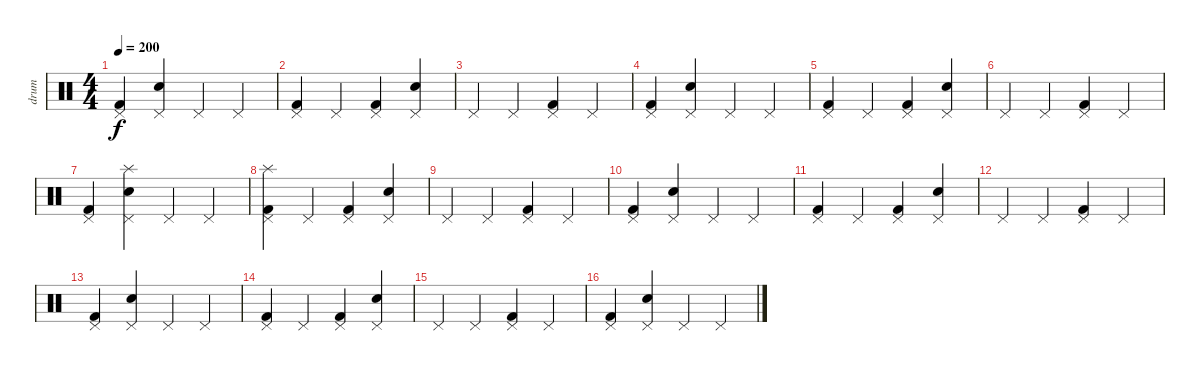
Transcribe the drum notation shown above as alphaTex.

\track ("drum" "drum") {instrument percussion}
\staff {score}
\articulation defaults
\ts (4 4)
\tempo 200
\clef neutral
\ks c
("Pedal Hi-Hat (hit)" "Kick (hit) 2").4{dy f} ("Pedal Hi-Hat (hit)" "Electric Snare (hit)").4 "Pedal Hi-Hat (hit)".4 "Pedal Hi-Hat (hit)".4 |
("Pedal Hi-Hat (hit)" "Kick (hit) 2").4 "Pedal Hi-Hat (hit)".4 ("Pedal Hi-Hat (hit)" "Kick (hit) 2").4 ("Pedal Hi-Hat (hit)" "Electric Snare (hit)").4 |
"Pedal Hi-Hat (hit)".4 "Pedal Hi-Hat (hit)".4 ("Pedal Hi-Hat (hit)" "Kick (hit) 2").4 "Pedal Hi-Hat (hit)".4 |
("Pedal Hi-Hat (hit)" "Kick (hit) 2").4 ("Pedal Hi-Hat (hit)" "Electric Snare (hit)").4 "Pedal Hi-Hat (hit)".4 "Pedal Hi-Hat (hit)".4 |
("Pedal Hi-Hat (hit)" "Kick (hit) 2").4 "Pedal Hi-Hat (hit)".4 ("Pedal Hi-Hat (hit)" "Kick (hit) 2").4 ("Pedal Hi-Hat (hit)" "Electric Snare (hit)").4 |
"Pedal Hi-Hat (hit)".4 "Pedal Hi-Hat (hit)".4 ("Pedal Hi-Hat (hit)" "Kick (hit) 2").4 "Pedal Hi-Hat (hit)".4 |
("Pedal Hi-Hat (hit)" "Kick (hit) 2").4 ("Pedal Hi-Hat (hit)" "Splash (hit)" "Electric Snare (hit)").4 "Pedal Hi-Hat (hit)".4 "Pedal Hi-Hat (hit)".4 |
("Pedal Hi-Hat (hit)" "Splash (hit)" "Kick (hit) 2").4 "Pedal Hi-Hat (hit)".4 ("Pedal Hi-Hat (hit)" "Kick (hit) 2").4 ("Pedal Hi-Hat (hit)" "Electric Snare (hit)").4 |
"Pedal Hi-Hat (hit)".4 "Pedal Hi-Hat (hit)".4 ("Pedal Hi-Hat (hit)" "Kick (hit) 2").4 "Pedal Hi-Hat (hit)".4 |
("Pedal Hi-Hat (hit)" "Kick (hit) 2").4 ("Pedal Hi-Hat (hit)" "Electric Snare (hit)").4 "Pedal Hi-Hat (hit)".4 "Pedal Hi-Hat (hit)".4 |
("Pedal Hi-Hat (hit)" "Kick (hit) 2").4 "Pedal Hi-Hat (hit)".4 ("Pedal Hi-Hat (hit)" "Kick (hit) 2").4 ("Pedal Hi-Hat (hit)" "Electric Snare (hit)").4 |
"Pedal Hi-Hat (hit)".4 "Pedal Hi-Hat (hit)".4 ("Pedal Hi-Hat (hit)" "Kick (hit) 2").4 "Pedal Hi-Hat (hit)".4 |
("Pedal Hi-Hat (hit)" "Kick (hit) 2").4 ("Pedal Hi-Hat (hit)" "Electric Snare (hit)").4 "Pedal Hi-Hat (hit)".4 "Pedal Hi-Hat (hit)".4 |
("Pedal Hi-Hat (hit)" "Kick (hit) 2").4 "Pedal Hi-Hat (hit)".4 ("Pedal Hi-Hat (hit)" "Kick (hit) 2").4 ("Pedal Hi-Hat (hit)" "Electric Snare (hit)").4 |
"Pedal Hi-Hat (hit)".4 "Pedal Hi-Hat (hit)".4 ("Pedal Hi-Hat (hit)" "Kick (hit) 2").4 "Pedal Hi-Hat (hit)".4 |
("Pedal Hi-Hat (hit)" "Kick (hit) 2").4 ("Pedal Hi-Hat (hit)" "Electric Snare (hit)").4 "Pedal Hi-Hat (hit)".4 "Pedal Hi-Hat (hit)".4
